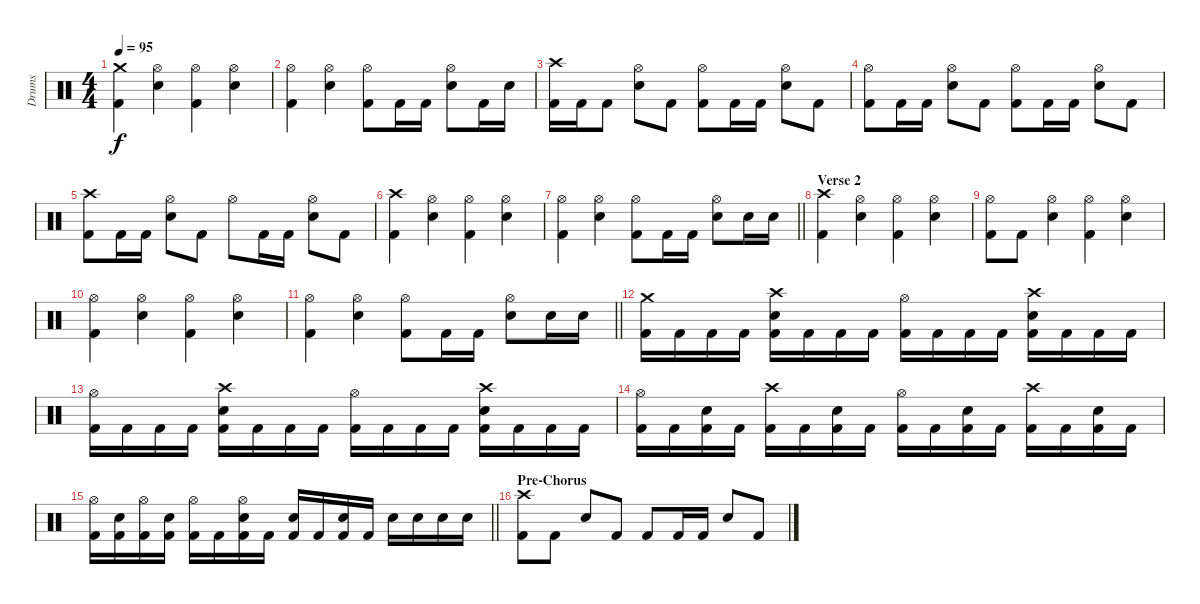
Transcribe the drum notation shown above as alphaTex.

\track ("Drums" "Drums") {instrument percussion}
\staff {score}
\articulation defaults
\ts (4 4)
\tempo 95
\clef neutral
\ks c
("Crash medium (hit)" "Kick (hit) 2").4{dy f} ("Hi-Hat (open)" "Electric Snare (hit)").4 ("Hi-Hat (open)" "Kick (hit) 2").4 ("Hi-Hat (open)" "Electric Snare (hit)").4 |
("Hi-Hat (open)" "Kick (hit) 2").4 ("Hi-Hat (open)" "Electric Snare (hit)").4 ("Hi-Hat (open)" "Kick (hit) 2").8 "Kick (hit) 2".16 "Kick (hit) 2".16 ("Hi-Hat (open)" "Electric Snare (hit)").8 "Kick (hit) 2".16 "Electric Snare (hit)".16 |
("Crash high (hit)" "Kick (hit) 2").16 "Kick (hit) 2".16 "Kick (hit) 2".8 ("Hi-Hat (open)" "Electric Snare (hit)").8 "Kick (hit) 2".8 ("Hi-Hat (open)" "Kick (hit) 2").8 "Kick (hit) 2".16 "Kick (hit) 2".16 ("Hi-Hat (open)" "Electric Snare (hit)").8 "Kick (hit) 2".8 |
("Hi-Hat (open)" "Kick (hit) 2").8 "Kick (hit) 2".16 "Kick (hit) 2".16 ("Hi-Hat (open)" "Electric Snare (hit)").8 "Kick (hit) 2".8 ("Hi-Hat (open)" "Kick (hit) 2").8 "Kick (hit) 2".16 "Kick (hit) 2".16 ("Hi-Hat (open)" "Electric Snare (hit)").8 "Kick (hit) 2".8 |
("Crash high (hit)" "Kick (hit) 2").8 "Kick (hit) 2".16 "Kick (hit) 2".16 ("Hi-Hat (open)" "Electric Snare (hit)").8 "Kick (hit) 2".8 "Hi-Hat (open)".8 "Kick (hit) 2".16 "Kick (hit) 2".16 ("Hi-Hat (open)" "Electric Snare (hit)").8 "Kick (hit) 2".8 |
("Crash high (hit)" "Kick (hit) 2").4 ("Hi-Hat (open)" "Electric Snare (hit)").4 ("Hi-Hat (open)" "Kick (hit) 2").4 ("Hi-Hat (open)" "Electric Snare (hit)").4 |
\barLineRight lightlight
("Hi-Hat (open)" "Kick (hit) 2").4 ("Hi-Hat (open)" "Electric Snare (hit)").4 ("Hi-Hat (open)" "Kick (hit) 2").8 "Kick (hit) 2".16 "Kick (hit) 2".16 ("Hi-Hat (open)" "Electric Snare (hit)").8 "Electric Snare (hit)".16 "Electric Snare (hit)".16 |
\section ("" "Verse 2")
("Crash high (hit)" "Kick (hit) 2").4 ("Hi-Hat (open)" "Electric Snare (hit)").4 ("Hi-Hat (open)" "Kick (hit) 2").4 ("Hi-Hat (open)" "Electric Snare (hit)").4 |
("Hi-Hat (open)" "Kick (hit) 2").8 "Kick (hit) 2".8 ("Hi-Hat (open)" "Electric Snare (hit)").4 ("Hi-Hat (open)" "Kick (hit) 2").4 ("Hi-Hat (open)" "Electric Snare (hit)").4 |
("Hi-Hat (open)" "Kick (hit) 2").4 ("Hi-Hat (open)" "Electric Snare (hit)").4 ("Hi-Hat (open)" "Kick (hit) 2").4 ("Hi-Hat (open)" "Electric Snare (hit)").4 |
\barLineRight lightlight
("Hi-Hat (open)" "Kick (hit) 2").4 ("Hi-Hat (open)" "Electric Snare (hit)").4 ("Hi-Hat (open)" "Kick (hit) 2").8 "Kick (hit) 2".16 "Kick (hit) 2".16 ("Hi-Hat (open)" "Electric Snare (hit)").8 "Electric Snare (hit)".16 "Electric Snare (hit)".16 |
("Crash medium (hit)" "Kick (hit) 2").16 "Kick (hit) 2".16 "Kick (hit) 2".16 "Kick (hit) 2".16 ("Crash high (hit)" "Electric Snare (hit)" "Kick (hit) 2").16 "Kick (hit) 2".16 "Kick (hit) 2".16 "Kick (hit) 2".16 ("Hi-Hat (open)" "Kick (hit) 2").16 "Kick (hit) 2".16 "Kick (hit) 2".16 "Kick (hit) 2".16 ("Crash high (hit)" "Electric Snare (hit)" "Kick (hit) 2").16 "Kick (hit) 2".16 "Kick (hit) 2".16 "Kick (hit) 2".16 |
("Hi-Hat (open)" "Kick (hit) 2").16 "Kick (hit) 2".16 "Kick (hit) 2".16 "Kick (hit) 2".16 ("Crash high (hit)" "Electric Snare (hit)" "Kick (hit) 2").16 "Kick (hit) 2".16 "Kick (hit) 2".16 "Kick (hit) 2".16 ("Hi-Hat (open)" "Kick (hit) 2").16 "Kick (hit) 2".16 "Kick (hit) 2".16 "Kick (hit) 2".16 ("Crash high (hit)" "Electric Snare (hit)" "Kick (hit) 2").16 "Kick (hit) 2".16 "Kick (hit) 2".16 "Kick (hit) 2".16 |
("Hi-Hat (open)" "Kick (hit) 2").16 "Kick (hit) 2".16 ("Electric Snare (hit)" "Kick (hit) 2").16 "Kick (hit) 2".16 ("Crash high (hit)" "Kick (hit) 2").16 "Kick (hit) 2".16 ("Electric Snare (hit)" "Kick (hit) 2").16 "Kick (hit) 2".16 ("Hi-Hat (open)" "Kick (hit) 2").16 "Kick (hit) 2".16 ("Electric Snare (hit)" "Kick (hit) 2").16 "Kick (hit) 2".16 ("Crash high (hit)" "Kick (hit) 2").16 "Kick (hit) 2".16 ("Electric Snare (hit)" "Kick (hit) 2").16 "Kick (hit) 2".16 |
\barLineRight lightlight
("Hi-Hat (open)" "Kick (hit) 2").16 ("Electric Snare (hit)" "Kick (hit) 2").16 ("Hi-Hat (open)" "Kick (hit) 2").16 ("Electric Snare (hit)" "Kick (hit) 2").16 ("Hi-Hat (open)" "Kick (hit) 2").16 "Kick (hit) 2".16 ("Hi-Hat (open)" "Electric Snare (hit)" "Kick (hit) 2").16 "Kick (hit) 2".16 ("Electric Snare (hit)" "Kick (hit) 2").16 "Kick (hit) 2".16 ("Electric Snare (hit)" "Kick (hit) 2").16 "Kick (hit) 2".16 "Electric Snare (hit)".16 "Electric Snare (hit)".16 "Electric Snare (hit)".16 "Electric Snare (hit)".16 |
\section ("" "Pre-Chorus")
("Crash high (hit)" "Kick (hit) 2").8 "Kick (hit) 2".8 "Electric Snare (hit)".8 "Kick (hit) 2".8 "Kick (hit) 2".8 "Kick (hit) 2".16 "Kick (hit) 2".16 "Electric Snare (hit)".8 "Kick (hit) 2".8
